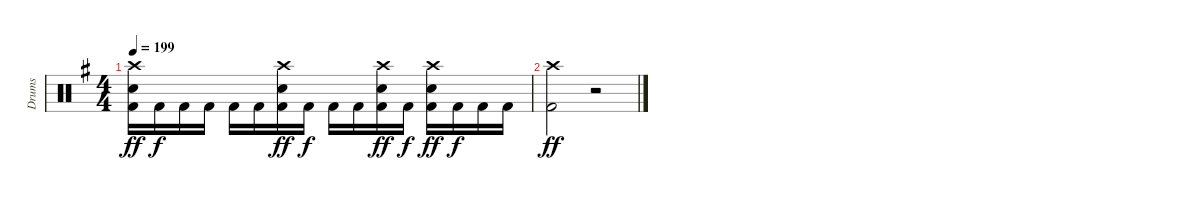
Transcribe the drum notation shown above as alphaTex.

\track ("Drums" "Drums") {instrument percussion}
\staff {score}
\articulation defaults
\ts (4 4)
\tempo 199
\clef neutral
\ks eminor
("Crash high (hit)" "Electric Snare (hit)" "Kick (hit) 2").16{dy ff} "Kick (hit) 2".16{dy f} "Kick (hit) 2".16 "Kick (hit) 2".16 "Kick (hit) 2".16 "Kick (hit) 2".16 ("Crash high (hit)" "Electric Snare (hit)" "Kick (hit) 2").16{dy ff} "Kick (hit) 2".16{dy f} "Kick (hit) 2".16 "Kick (hit) 2".16 ("Crash high (hit)" "Electric Snare (hit)" "Kick (hit) 2").16{dy ff} "Kick (hit) 2".16{dy f} ("Crash high (hit)" "Electric Snare (hit)" "Kick (hit) 2").16{dy ff} "Kick (hit) 2".16{dy f} "Kick (hit) 2".16 "Kick (hit) 2".16 |
("Crash high (hit)" "Kick (hit) 2").2{dy ff} r.2
